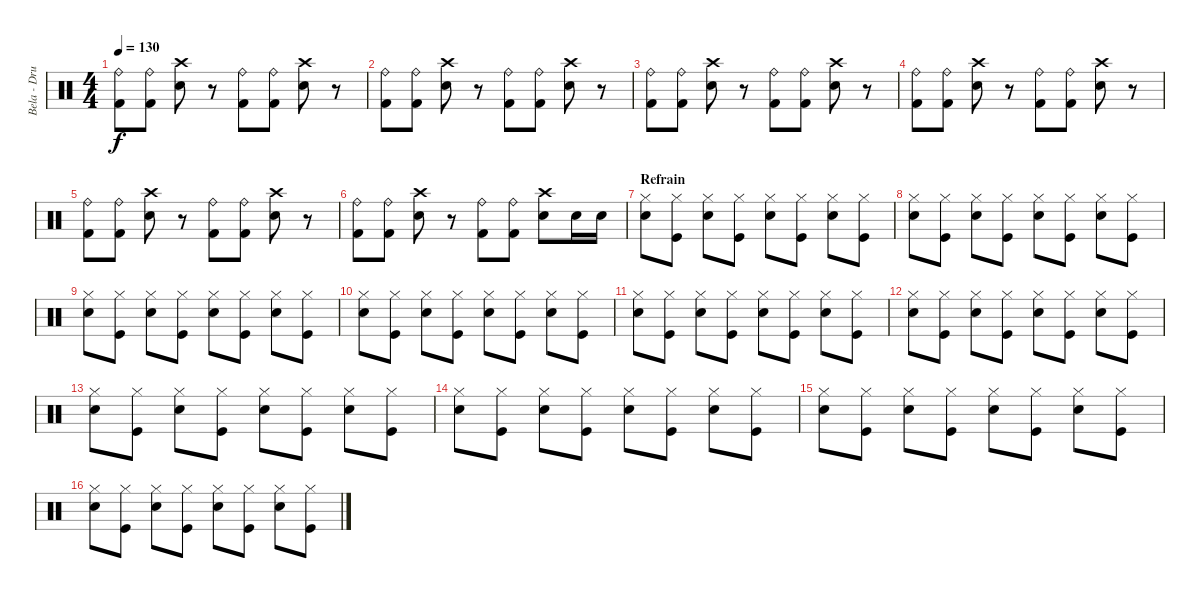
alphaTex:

\track ("Bela - Drums" "Bela - Dru") {instrument percussion}
\staff {score}
\articulation defaults
\ts (4 4)
\tempo 130
\clef neutral
\ks c
("Ride (bell)" "Kick (hit) 2").8{dy f} ("Ride (bell)" "Kick (hit) 2").8 ("Crash high (hit)" "Electric Snare (hit)").8 r.8 ("Ride (bell)" "Kick (hit) 2").8 ("Ride (bell)" "Kick (hit) 2").8 ("Crash high (hit)" "Electric Snare (hit)").8 r.8 |
("Ride (bell)" "Kick (hit) 2").8 ("Ride (bell)" "Kick (hit) 2").8 ("Crash high (hit)" "Electric Snare (hit)").8 r.8 ("Ride (bell)" "Kick (hit) 2").8 ("Ride (bell)" "Kick (hit) 2").8 ("Crash high (hit)" "Electric Snare (hit)").8 r.8 |
("Ride (bell)" "Kick (hit) 2").8 ("Ride (bell)" "Kick (hit) 2").8 ("Crash high (hit)" "Electric Snare (hit)").8 r.8 ("Ride (bell)" "Kick (hit) 2").8 ("Ride (bell)" "Kick (hit) 2").8 ("Crash high (hit)" "Electric Snare (hit)").8 r.8 |
("Ride (bell)" "Kick (hit) 2").8 ("Ride (bell)" "Kick (hit) 2").8 ("Crash high (hit)" "Electric Snare (hit)").8 r.8 ("Ride (bell)" "Kick (hit) 2").8 ("Ride (bell)" "Kick (hit) 2").8 ("Crash high (hit)" "Electric Snare (hit)").8 r.8 |
("Ride (bell)" "Kick (hit) 2").8 ("Ride (bell)" "Kick (hit) 2").8 ("Crash high (hit)" "Electric Snare (hit)").8 r.8 ("Ride (bell)" "Kick (hit) 2").8 ("Ride (bell)" "Kick (hit) 2").8 ("Crash high (hit)" "Electric Snare (hit)").8 r.8 |
("Ride (bell)" "Kick (hit) 2").8 ("Ride (bell)" "Kick (hit) 2").8 ("Crash high (hit)" "Electric Snare (hit)").8 r.8 ("Ride (bell)" "Kick (hit) 2").8 ("Ride (bell)" "Kick (hit) 2").8 ("Crash high (hit)" "Electric Snare (hit)").8 "Electric Snare (hit)".16 "Electric Snare (hit)".16 |
\section ("" "Refrain")
("Hi-Hat (closed)" "Electric Snare (hit)").8 ("Hi-Hat (closed)" "Kick (hit)").8 ("Hi-Hat (closed)" "Electric Snare (hit)").8 ("Hi-Hat (closed)" "Kick (hit)").8 ("Hi-Hat (closed)" "Electric Snare (hit)").8 ("Hi-Hat (closed)" "Kick (hit)").8 ("Hi-Hat (closed)" "Electric Snare (hit)").8 ("Hi-Hat (closed)" "Kick (hit)").8 |
("Hi-Hat (closed)" "Electric Snare (hit)").8 ("Hi-Hat (closed)" "Kick (hit)").8 ("Hi-Hat (closed)" "Electric Snare (hit)").8 ("Hi-Hat (closed)" "Kick (hit)").8 ("Hi-Hat (closed)" "Electric Snare (hit)").8 ("Hi-Hat (closed)" "Kick (hit)").8 ("Hi-Hat (closed)" "Electric Snare (hit)").8 ("Hi-Hat (closed)" "Kick (hit)").8 |
("Hi-Hat (closed)" "Electric Snare (hit)").8 ("Hi-Hat (closed)" "Kick (hit)").8 ("Hi-Hat (closed)" "Electric Snare (hit)").8 ("Hi-Hat (closed)" "Kick (hit)").8 ("Hi-Hat (closed)" "Electric Snare (hit)").8 ("Hi-Hat (closed)" "Kick (hit)").8 ("Hi-Hat (closed)" "Electric Snare (hit)").8 ("Hi-Hat (closed)" "Kick (hit)").8 |
("Hi-Hat (closed)" "Electric Snare (hit)").8 ("Hi-Hat (closed)" "Kick (hit)").8 ("Hi-Hat (closed)" "Electric Snare (hit)").8 ("Hi-Hat (closed)" "Kick (hit)").8 ("Hi-Hat (closed)" "Electric Snare (hit)").8 ("Hi-Hat (closed)" "Kick (hit)").8 ("Hi-Hat (closed)" "Electric Snare (hit)").8 ("Hi-Hat (closed)" "Kick (hit)").8 |
("Hi-Hat (closed)" "Electric Snare (hit)").8 ("Hi-Hat (closed)" "Kick (hit)").8 ("Hi-Hat (closed)" "Electric Snare (hit)").8 ("Hi-Hat (closed)" "Kick (hit)").8 ("Hi-Hat (closed)" "Electric Snare (hit)").8 ("Hi-Hat (closed)" "Kick (hit)").8 ("Hi-Hat (closed)" "Electric Snare (hit)").8 ("Hi-Hat (closed)" "Kick (hit)").8 |
("Hi-Hat (closed)" "Electric Snare (hit)").8 ("Hi-Hat (closed)" "Kick (hit)").8 ("Hi-Hat (closed)" "Electric Snare (hit)").8 ("Hi-Hat (closed)" "Kick (hit)").8 ("Hi-Hat (closed)" "Electric Snare (hit)").8 ("Hi-Hat (closed)" "Kick (hit)").8 ("Hi-Hat (closed)" "Electric Snare (hit)").8 ("Hi-Hat (closed)" "Kick (hit)").8 |
("Hi-Hat (closed)" "Electric Snare (hit)").8 ("Hi-Hat (closed)" "Kick (hit)").8 ("Hi-Hat (closed)" "Electric Snare (hit)").8 ("Hi-Hat (closed)" "Kick (hit)").8 ("Hi-Hat (closed)" "Electric Snare (hit)").8 ("Hi-Hat (closed)" "Kick (hit)").8 ("Hi-Hat (closed)" "Electric Snare (hit)").8 ("Hi-Hat (closed)" "Kick (hit)").8 |
("Hi-Hat (closed)" "Electric Snare (hit)").8 ("Hi-Hat (closed)" "Kick (hit)").8 ("Hi-Hat (closed)" "Electric Snare (hit)").8 ("Hi-Hat (closed)" "Kick (hit)").8 ("Hi-Hat (closed)" "Electric Snare (hit)").8 ("Hi-Hat (closed)" "Kick (hit)").8 ("Hi-Hat (closed)" "Electric Snare (hit)").8 ("Hi-Hat (closed)" "Kick (hit)").8 |
("Hi-Hat (closed)" "Electric Snare (hit)").8 ("Hi-Hat (closed)" "Kick (hit)").8 ("Hi-Hat (closed)" "Electric Snare (hit)").8 ("Hi-Hat (closed)" "Kick (hit)").8 ("Hi-Hat (closed)" "Electric Snare (hit)").8 ("Hi-Hat (closed)" "Kick (hit)").8 ("Hi-Hat (closed)" "Electric Snare (hit)").8 ("Hi-Hat (closed)" "Kick (hit)").8 |
("Hi-Hat (closed)" "Electric Snare (hit)").8 ("Hi-Hat (closed)" "Kick (hit)").8 ("Hi-Hat (closed)" "Electric Snare (hit)").8 ("Hi-Hat (closed)" "Kick (hit)").8 ("Hi-Hat (closed)" "Electric Snare (hit)").8 ("Hi-Hat (closed)" "Kick (hit)").8 ("Hi-Hat (closed)" "Electric Snare (hit)").8 ("Hi-Hat (closed)" "Kick (hit)").8
